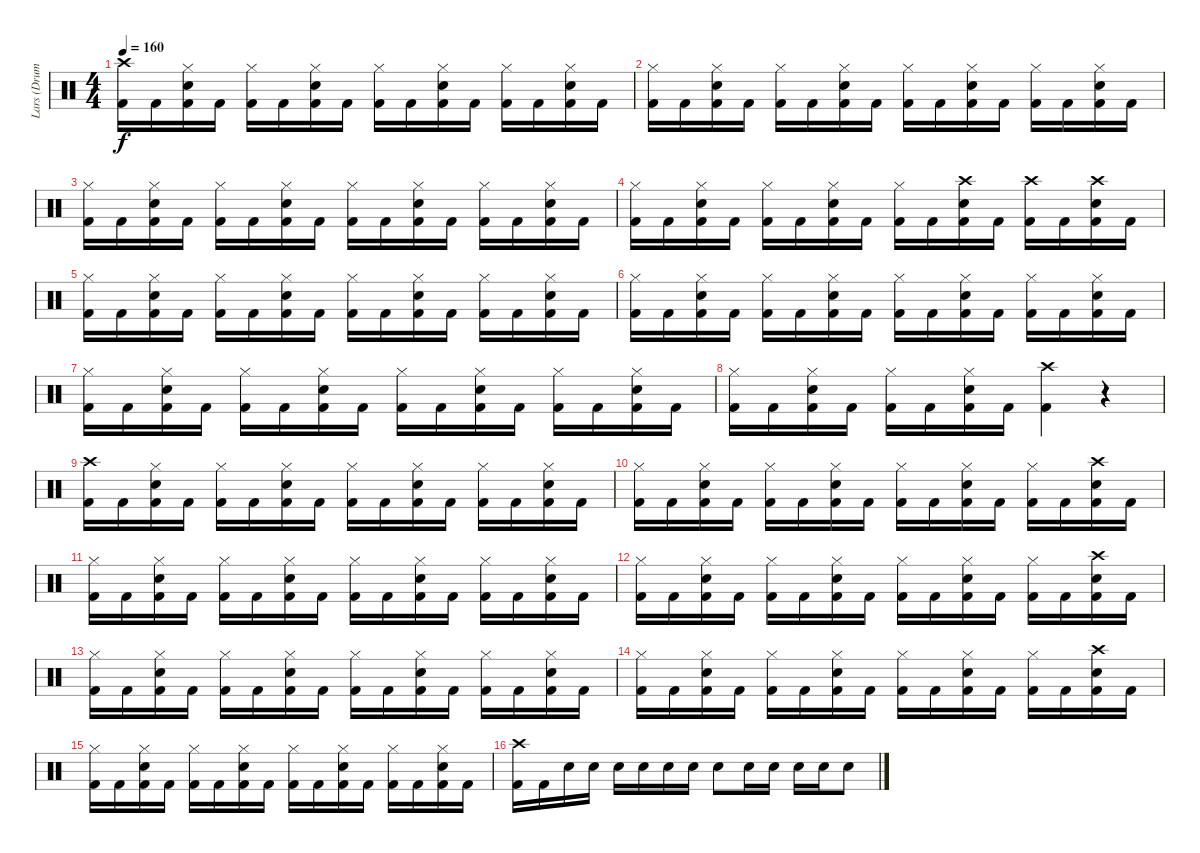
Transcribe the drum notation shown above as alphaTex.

\track ("Lars (Drums)" "Lars (Drum") {instrument percussion}
\staff {score}
\articulation defaults
\ts (4 4)
\tempo 160
\clef neutral
\ks c
("Crash high (hit)" "Kick (hit) 2").16{dy f} "Kick (hit) 2".16 ("Hi-Hat (closed)" "Kick (hit) 2" "Snare (hit) 2").16 "Kick (hit) 2".16 ("Hi-Hat (closed)" "Kick (hit) 2").16 "Kick (hit) 2".16 ("Hi-Hat (closed)" "Kick (hit) 2" "Snare (hit) 2").16 "Kick (hit) 2".16 ("Hi-Hat (closed)" "Kick (hit) 2").16 "Kick (hit) 2".16 ("Hi-Hat (closed)" "Kick (hit) 2" "Snare (hit) 2").16 "Kick (hit) 2".16 ("Hi-Hat (closed)" "Kick (hit) 2").16 "Kick (hit) 2".16 ("Hi-Hat (closed)" "Kick (hit) 2" "Snare (hit) 2").16 "Kick (hit) 2".16 |
("Hi-Hat (closed)" "Kick (hit) 2").16 "Kick (hit) 2".16 ("Hi-Hat (closed)" "Kick (hit) 2" "Snare (hit) 2").16 "Kick (hit) 2".16 ("Hi-Hat (closed)" "Kick (hit) 2").16 "Kick (hit) 2".16 ("Hi-Hat (closed)" "Kick (hit) 2" "Snare (hit) 2").16 "Kick (hit) 2".16 ("Hi-Hat (closed)" "Kick (hit) 2").16 "Kick (hit) 2".16 ("Hi-Hat (closed)" "Kick (hit) 2" "Snare (hit) 2").16 "Kick (hit) 2".16 ("Hi-Hat (closed)" "Kick (hit) 2").16 "Kick (hit) 2".16 ("Hi-Hat (closed)" "Kick (hit) 2" "Snare (hit) 2").16 "Kick (hit) 2".16 |
("Hi-Hat (closed)" "Kick (hit) 2").16 "Kick (hit) 2".16 ("Hi-Hat (closed)" "Kick (hit) 2" "Snare (hit) 2").16 "Kick (hit) 2".16 ("Hi-Hat (closed)" "Kick (hit) 2").16 "Kick (hit) 2".16 ("Hi-Hat (closed)" "Kick (hit) 2" "Snare (hit) 2").16 "Kick (hit) 2".16 ("Hi-Hat (closed)" "Kick (hit) 2").16 "Kick (hit) 2".16 ("Hi-Hat (closed)" "Kick (hit) 2" "Snare (hit) 2").16 "Kick (hit) 2".16 ("Hi-Hat (closed)" "Kick (hit) 2").16 "Kick (hit) 2".16 ("Hi-Hat (closed)" "Kick (hit) 2" "Snare (hit) 2").16 "Kick (hit) 2".16 |
("Hi-Hat (closed)" "Kick (hit) 2").16 "Kick (hit) 2".16 ("Hi-Hat (closed)" "Kick (hit) 2" "Snare (hit) 2").16 "Kick (hit) 2".16 ("Hi-Hat (closed)" "Kick (hit) 2").16 "Kick (hit) 2".16 ("Hi-Hat (closed)" "Kick (hit) 2" "Snare (hit) 2").16 "Kick (hit) 2".16 ("Hi-Hat (closed)" "Kick (hit) 2").16 "Kick (hit) 2".16 ("Crash high (hit)" "Kick (hit) 2" "Snare (hit) 2").16 "Kick (hit) 2".16 ("Crash high (hit)" "Kick (hit) 2").16 "Kick (hit) 2".16 ("Crash high (hit)" "Kick (hit) 2" "Snare (hit) 2").16 "Kick (hit) 2".16 |
("Hi-Hat (closed)" "Kick (hit) 2").16 "Kick (hit) 2".16 ("Hi-Hat (closed)" "Kick (hit) 2" "Snare (hit) 2").16 "Kick (hit) 2".16 ("Hi-Hat (closed)" "Kick (hit) 2").16 "Kick (hit) 2".16 ("Hi-Hat (closed)" "Kick (hit) 2" "Snare (hit) 2").16 "Kick (hit) 2".16 ("Hi-Hat (closed)" "Kick (hit) 2").16 "Kick (hit) 2".16 ("Hi-Hat (closed)" "Kick (hit) 2" "Snare (hit) 2").16 "Kick (hit) 2".16 ("Hi-Hat (closed)" "Kick (hit) 2").16 "Kick (hit) 2".16 ("Hi-Hat (closed)" "Kick (hit) 2" "Snare (hit) 2").16 "Kick (hit) 2".16 |
("Hi-Hat (closed)" "Kick (hit) 2").16 "Kick (hit) 2".16 ("Hi-Hat (closed)" "Kick (hit) 2" "Snare (hit) 2").16 "Kick (hit) 2".16 ("Hi-Hat (closed)" "Kick (hit) 2").16 "Kick (hit) 2".16 ("Hi-Hat (closed)" "Kick (hit) 2" "Snare (hit) 2").16 "Kick (hit) 2".16 ("Hi-Hat (closed)" "Kick (hit) 2").16 "Kick (hit) 2".16 ("Hi-Hat (closed)" "Kick (hit) 2" "Snare (hit) 2").16 "Kick (hit) 2".16 ("Hi-Hat (closed)" "Kick (hit) 2").16 "Kick (hit) 2".16 ("Hi-Hat (closed)" "Kick (hit) 2" "Snare (hit) 2").16 "Kick (hit) 2".16 |
("Hi-Hat (closed)" "Kick (hit) 2").16 "Kick (hit) 2".16 ("Hi-Hat (closed)" "Kick (hit) 2" "Snare (hit) 2").16 "Kick (hit) 2".16 ("Hi-Hat (closed)" "Kick (hit) 2").16 "Kick (hit) 2".16 ("Hi-Hat (closed)" "Kick (hit) 2" "Snare (hit) 2").16 "Kick (hit) 2".16 ("Hi-Hat (closed)" "Kick (hit) 2").16 "Kick (hit) 2".16 ("Hi-Hat (closed)" "Kick (hit) 2" "Snare (hit) 2").16 "Kick (hit) 2".16 ("Hi-Hat (closed)" "Kick (hit) 2").16 "Kick (hit) 2".16 ("Hi-Hat (closed)" "Kick (hit) 2" "Snare (hit) 2").16 "Kick (hit) 2".16 |
("Hi-Hat (closed)" "Kick (hit) 2").16 "Kick (hit) 2".16 ("Hi-Hat (closed)" "Kick (hit) 2" "Snare (hit) 2").16 "Kick (hit) 2".16 ("Hi-Hat (closed)" "Kick (hit) 2").16 "Kick (hit) 2".16 ("Hi-Hat (closed)" "Kick (hit) 2" "Snare (hit) 2").16 "Kick (hit) 2".16 ("Crash high (hit)" "Kick (hit) 2").4 r.4 |
("Crash high (hit)" "Kick (hit) 2").16 "Kick (hit) 2".16 ("Hi-Hat (closed)" "Kick (hit) 2" "Snare (hit) 2").16 "Kick (hit) 2".16 ("Hi-Hat (closed)" "Kick (hit) 2").16 "Kick (hit) 2".16 ("Hi-Hat (closed)" "Kick (hit) 2" "Snare (hit) 2").16 "Kick (hit) 2".16 ("Hi-Hat (closed)" "Kick (hit) 2").16 "Kick (hit) 2".16 ("Hi-Hat (closed)" "Kick (hit) 2" "Snare (hit) 2").16 "Kick (hit) 2".16 ("Hi-Hat (closed)" "Kick (hit) 2").16 "Kick (hit) 2".16 ("Hi-Hat (closed)" "Kick (hit) 2" "Snare (hit) 2").16 "Kick (hit) 2".16 |
("Hi-Hat (closed)" "Kick (hit) 2").16 "Kick (hit) 2".16 ("Hi-Hat (closed)" "Kick (hit) 2" "Snare (hit) 2").16 "Kick (hit) 2".16 ("Hi-Hat (closed)" "Kick (hit) 2").16 "Kick (hit) 2".16 ("Hi-Hat (closed)" "Kick (hit) 2" "Snare (hit) 2").16 "Kick (hit) 2".16 ("Hi-Hat (closed)" "Kick (hit) 2").16 "Kick (hit) 2".16 ("Hi-Hat (closed)" "Kick (hit) 2" "Snare (hit) 2").16 "Kick (hit) 2".16 ("Hi-Hat (closed)" "Kick (hit) 2").16 "Kick (hit) 2".16 ("Crash high (hit)" "Kick (hit) 2" "Snare (hit) 2").16 "Kick (hit) 2".16 |
("Hi-Hat (closed)" "Kick (hit) 2").16 "Kick (hit) 2".16 ("Hi-Hat (closed)" "Kick (hit) 2" "Snare (hit) 2").16 "Kick (hit) 2".16 ("Hi-Hat (closed)" "Kick (hit) 2").16 "Kick (hit) 2".16 ("Hi-Hat (closed)" "Kick (hit) 2" "Snare (hit) 2").16 "Kick (hit) 2".16 ("Hi-Hat (closed)" "Kick (hit) 2").16 "Kick (hit) 2".16 ("Hi-Hat (closed)" "Kick (hit) 2" "Snare (hit) 2").16 "Kick (hit) 2".16 ("Hi-Hat (closed)" "Kick (hit) 2").16 "Kick (hit) 2".16 ("Hi-Hat (closed)" "Kick (hit) 2" "Snare (hit) 2").16 "Kick (hit) 2".16 |
("Hi-Hat (closed)" "Kick (hit) 2").16 "Kick (hit) 2".16 ("Hi-Hat (closed)" "Kick (hit) 2" "Snare (hit) 2").16 "Kick (hit) 2".16 ("Hi-Hat (closed)" "Kick (hit) 2").16 "Kick (hit) 2".16 ("Hi-Hat (closed)" "Kick (hit) 2" "Snare (hit) 2").16 "Kick (hit) 2".16 ("Hi-Hat (closed)" "Kick (hit) 2").16 "Kick (hit) 2".16 ("Hi-Hat (closed)" "Kick (hit) 2" "Snare (hit) 2").16 "Kick (hit) 2".16 ("Hi-Hat (closed)" "Kick (hit) 2").16 "Kick (hit) 2".16 ("Crash high (hit)" "Kick (hit) 2" "Snare (hit) 2").16 "Kick (hit) 2".16 |
("Hi-Hat (closed)" "Kick (hit) 2").16 "Kick (hit) 2".16 ("Hi-Hat (closed)" "Kick (hit) 2" "Snare (hit) 2").16 "Kick (hit) 2".16 ("Hi-Hat (closed)" "Kick (hit) 2").16 "Kick (hit) 2".16 ("Hi-Hat (closed)" "Kick (hit) 2" "Snare (hit) 2").16 "Kick (hit) 2".16 ("Hi-Hat (closed)" "Kick (hit) 2").16 "Kick (hit) 2".16 ("Hi-Hat (closed)" "Kick (hit) 2" "Snare (hit) 2").16 "Kick (hit) 2".16 ("Hi-Hat (closed)" "Kick (hit) 2").16 "Kick (hit) 2".16 ("Hi-Hat (closed)" "Kick (hit) 2" "Snare (hit) 2").16 "Kick (hit) 2".16 |
("Hi-Hat (closed)" "Kick (hit) 2").16 "Kick (hit) 2".16 ("Hi-Hat (closed)" "Kick (hit) 2" "Snare (hit) 2").16 "Kick (hit) 2".16 ("Hi-Hat (closed)" "Kick (hit) 2").16 "Kick (hit) 2".16 ("Hi-Hat (closed)" "Kick (hit) 2" "Snare (hit) 2").16 "Kick (hit) 2".16 ("Hi-Hat (closed)" "Kick (hit) 2").16 "Kick (hit) 2".16 ("Hi-Hat (closed)" "Kick (hit) 2" "Snare (hit) 2").16 "Kick (hit) 2".16 ("Hi-Hat (closed)" "Kick (hit) 2").16 "Kick (hit) 2".16 ("Crash high (hit)" "Kick (hit) 2" "Snare (hit) 2").16 "Kick (hit) 2".16 |
("Hi-Hat (closed)" "Kick (hit) 2").16 "Kick (hit) 2".16 ("Hi-Hat (closed)" "Kick (hit) 2" "Snare (hit) 2").16 "Kick (hit) 2".16 ("Hi-Hat (closed)" "Kick (hit) 2").16 "Kick (hit) 2".16 ("Hi-Hat (closed)" "Kick (hit) 2" "Snare (hit) 2").16 "Kick (hit) 2".16 ("Hi-Hat (closed)" "Kick (hit) 2").16 "Kick (hit) 2".16 ("Hi-Hat (closed)" "Kick (hit) 2" "Snare (hit) 2").16 "Kick (hit) 2".16 ("Hi-Hat (closed)" "Kick (hit) 2").16 "Kick (hit) 2".16 ("Hi-Hat (closed)" "Kick (hit) 2" "Snare (hit) 2").16 "Kick (hit) 2".16 |
("Crash high (hit)" "Kick (hit) 2").16 "Kick (hit) 2".16 "Snare (hit) 2".16 "Snare (hit) 2".16 "Snare (hit) 2".16 "Snare (hit) 2".16 "Snare (hit) 2".16 "Snare (hit) 2".16 "Snare (hit) 2".8 "Snare (hit) 2".16 "Snare (hit) 2".16 "Snare (hit) 2".16 "Snare (hit) 2".16 "Snare (hit) 2".8
